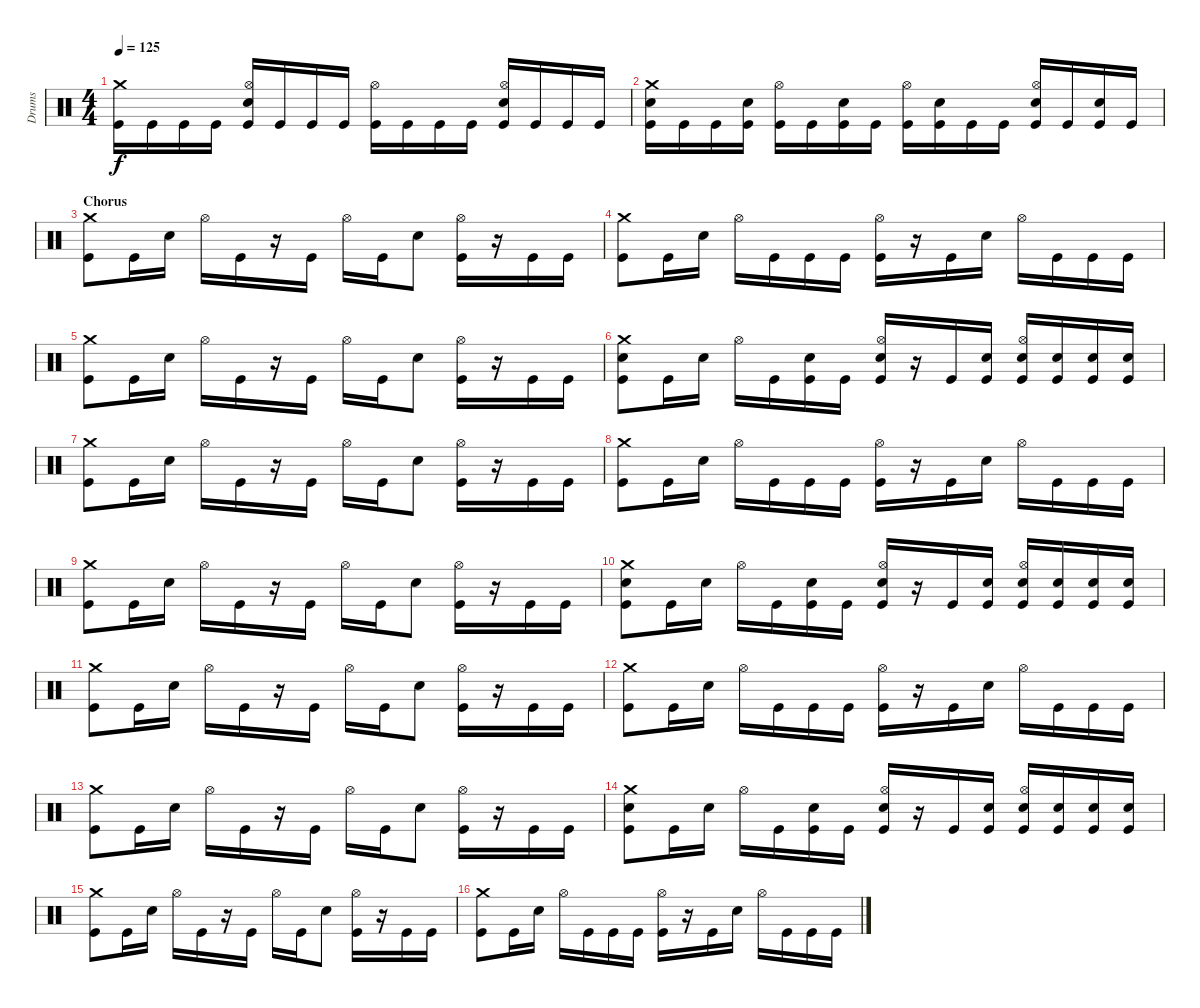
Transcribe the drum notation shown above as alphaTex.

\track ("Drums" "Drums") {instrument percussion}
\staff {score}
\articulation defaults
\ts (4 4)
\tempo 125
\clef neutral
\ks c
("Crash medium (hit)" "Kick (hit)").16{dy f} "Kick (hit)".16 "Kick (hit)".16 "Kick (hit)".16 ("Hi-Hat (open)" "Electric Snare (hit)" "Kick (hit)").16 "Kick (hit)".16 "Kick (hit)".16 "Kick (hit)".16 ("Hi-Hat (open)" "Kick (hit)").16 "Kick (hit)".16 "Kick (hit)".16 "Kick (hit)".16 ("Hi-Hat (open)" "Electric Snare (hit)" "Kick (hit)").16 "Kick (hit)".16 "Kick (hit)".16 "Kick (hit)".16 |
("Crash medium (hit)" "Electric Snare (hit)" "Kick (hit)").16 "Kick (hit)".16 "Kick (hit)".16 ("Electric Snare (hit)" "Kick (hit)").16 ("Hi-Hat (open)" "Kick (hit)").16 "Kick (hit)".16 ("Electric Snare (hit)" "Kick (hit)").16 "Kick (hit)".16 ("Hi-Hat (open)" "Kick (hit)").16 ("Electric Snare (hit)" "Kick (hit)").16 "Kick (hit)".16 "Kick (hit)".16 ("Hi-Hat (open)" "Electric Snare (hit)" "Kick (hit)").16 "Kick (hit)".16 ("Electric Snare (hit)" "Kick (hit)").16 "Kick (hit)".16 |
\section ("" "Chorus")
("Crash medium (hit)" "Kick (hit)").8 "Kick (hit)".16 "Electric Snare (hit)".16 "Hi-Hat (open)".16 "Kick (hit)".16 r.16 "Kick (hit)".16 "Hi-Hat (open)".16 "Kick (hit)".16 "Electric Snare (hit)".8 ("Hi-Hat (open)" "Kick (hit)").16 r.16 "Kick (hit)".16 "Kick (hit)".16 |
("Crash medium (hit)" "Kick (hit)").8 "Kick (hit)".16 "Electric Snare (hit)".16 "Hi-Hat (open)".16 "Kick (hit)".16 "Kick (hit)".16 "Kick (hit)".16 ("Hi-Hat (open)" "Kick (hit)").16 r.16 "Kick (hit)".16 "Electric Snare (hit)".16 "Hi-Hat (open)".16 "Kick (hit)".16 "Kick (hit)".16 "Kick (hit)".16 |
("Crash medium (hit)" "Kick (hit)").8 "Kick (hit)".16 "Electric Snare (hit)".16 "Hi-Hat (open)".16 "Kick (hit)".16 r.16 "Kick (hit)".16 "Hi-Hat (open)".16 "Kick (hit)".16 "Electric Snare (hit)".8 ("Hi-Hat (open)" "Kick (hit)").16 r.16 "Kick (hit)".16 "Kick (hit)".16 |
("Crash medium (hit)" "Electric Snare (hit)" "Kick (hit)").8 "Kick (hit)".16 "Electric Snare (hit)".16 "Hi-Hat (open)".16 "Kick (hit)".16 ("Electric Snare (hit)" "Kick (hit)").16 "Kick (hit)".16 ("Hi-Hat (open)" "Electric Snare (hit)" "Kick (hit)").16 r.16 "Kick (hit)".16 ("Electric Snare (hit)" "Kick (hit)").16 ("Hi-Hat (open)" "Electric Snare (hit)" "Kick (hit)").16 ("Electric Snare (hit)" "Kick (hit)").16 ("Electric Snare (hit)" "Kick (hit)").16 ("Electric Snare (hit)" "Kick (hit)").16 |
("Crash medium (hit)" "Kick (hit)").8 "Kick (hit)".16 "Electric Snare (hit)".16 "Hi-Hat (open)".16 "Kick (hit)".16 r.16 "Kick (hit)".16 "Hi-Hat (open)".16 "Kick (hit)".16 "Electric Snare (hit)".8 ("Hi-Hat (open)" "Kick (hit)").16 r.16 "Kick (hit)".16 "Kick (hit)".16 |
("Crash medium (hit)" "Kick (hit)").8 "Kick (hit)".16 "Electric Snare (hit)".16 "Hi-Hat (open)".16 "Kick (hit)".16 "Kick (hit)".16 "Kick (hit)".16 ("Hi-Hat (open)" "Kick (hit)").16 r.16 "Kick (hit)".16 "Electric Snare (hit)".16 "Hi-Hat (open)".16 "Kick (hit)".16 "Kick (hit)".16 "Kick (hit)".16 |
("Crash medium (hit)" "Kick (hit)").8 "Kick (hit)".16 "Electric Snare (hit)".16 "Hi-Hat (open)".16 "Kick (hit)".16 r.16 "Kick (hit)".16 "Hi-Hat (open)".16 "Kick (hit)".16 "Electric Snare (hit)".8 ("Hi-Hat (open)" "Kick (hit)").16 r.16 "Kick (hit)".16 "Kick (hit)".16 |
("Crash medium (hit)" "Electric Snare (hit)" "Kick (hit)").8 "Kick (hit)".16 "Electric Snare (hit)".16 "Hi-Hat (open)".16 "Kick (hit)".16 ("Electric Snare (hit)" "Kick (hit)").16 "Kick (hit)".16 ("Hi-Hat (open)" "Electric Snare (hit)" "Kick (hit)").16 r.16 "Kick (hit)".16 ("Electric Snare (hit)" "Kick (hit)").16 ("Hi-Hat (open)" "Electric Snare (hit)" "Kick (hit)").16 ("Electric Snare (hit)" "Kick (hit)").16 ("Electric Snare (hit)" "Kick (hit)").16 ("Electric Snare (hit)" "Kick (hit)").16 |
("Crash medium (hit)" "Kick (hit)").8 "Kick (hit)".16 "Electric Snare (hit)".16 "Hi-Hat (open)".16 "Kick (hit)".16 r.16 "Kick (hit)".16 "Hi-Hat (open)".16 "Kick (hit)".16 "Electric Snare (hit)".8 ("Hi-Hat (open)" "Kick (hit)").16 r.16 "Kick (hit)".16 "Kick (hit)".16 |
("Crash medium (hit)" "Kick (hit)").8 "Kick (hit)".16 "Electric Snare (hit)".16 "Hi-Hat (open)".16 "Kick (hit)".16 "Kick (hit)".16 "Kick (hit)".16 ("Hi-Hat (open)" "Kick (hit)").16 r.16 "Kick (hit)".16 "Electric Snare (hit)".16 "Hi-Hat (open)".16 "Kick (hit)".16 "Kick (hit)".16 "Kick (hit)".16 |
("Crash medium (hit)" "Kick (hit)").8 "Kick (hit)".16 "Electric Snare (hit)".16 "Hi-Hat (open)".16 "Kick (hit)".16 r.16 "Kick (hit)".16 "Hi-Hat (open)".16 "Kick (hit)".16 "Electric Snare (hit)".8 ("Hi-Hat (open)" "Kick (hit)").16 r.16 "Kick (hit)".16 "Kick (hit)".16 |
("Crash medium (hit)" "Electric Snare (hit)" "Kick (hit)").8 "Kick (hit)".16 "Electric Snare (hit)".16 "Hi-Hat (open)".16 "Kick (hit)".16 ("Electric Snare (hit)" "Kick (hit)").16 "Kick (hit)".16 ("Hi-Hat (open)" "Electric Snare (hit)" "Kick (hit)").16 r.16 "Kick (hit)".16 ("Electric Snare (hit)" "Kick (hit)").16 ("Hi-Hat (open)" "Electric Snare (hit)" "Kick (hit)").16 ("Electric Snare (hit)" "Kick (hit)").16 ("Electric Snare (hit)" "Kick (hit)").16 ("Electric Snare (hit)" "Kick (hit)").16 |
("Crash medium (hit)" "Kick (hit)").8 "Kick (hit)".16 "Electric Snare (hit)".16 "Hi-Hat (open)".16 "Kick (hit)".16 r.16 "Kick (hit)".16 "Hi-Hat (open)".16 "Kick (hit)".16 "Electric Snare (hit)".8 ("Hi-Hat (open)" "Kick (hit)").16 r.16 "Kick (hit)".16 "Kick (hit)".16 |
("Crash medium (hit)" "Kick (hit)").8 "Kick (hit)".16 "Electric Snare (hit)".16 "Hi-Hat (open)".16 "Kick (hit)".16 "Kick (hit)".16 "Kick (hit)".16 ("Hi-Hat (open)" "Kick (hit)").16 r.16 "Kick (hit)".16 "Electric Snare (hit)".16 "Hi-Hat (open)".16 "Kick (hit)".16 "Kick (hit)".16 "Kick (hit)".16
